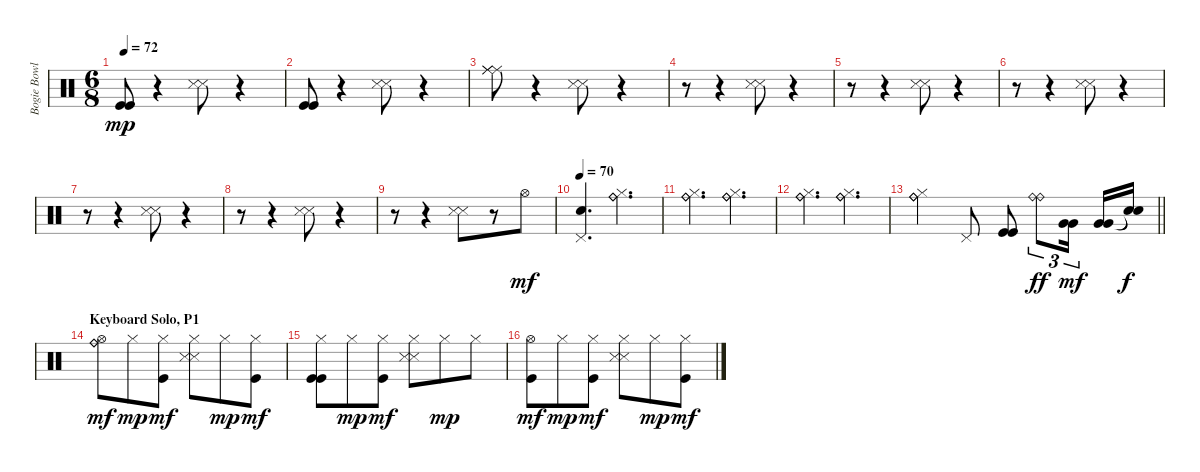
\track ("Bogie Bowles" "Bogie Bowl") {instrument percussion}
\staff {score}
\articulation defaults
\ts (6 8)
\tempo 72
\clef neutral
\ks c
("Kick (hit)" "Kick (hit)").8{dy mp} r.4 ("Snare (side stick) 3" "Snare (side stick) 3").8 r.4 |
("Kick (hit)" "Kick (hit)").8 r.4 ("Snare (side stick) 3" "Snare (side stick) 3").8 r.4 |
("Ride (middle)" "Ride (middle)" "Ride (middle)").8 r.4 ("Snare (side stick) 3" "Snare (side stick) 3").8 r.4 |
r.8 r.4 ("Snare (side stick) 3" "Snare (side stick) 3").8 r.4 |
r.8 r.4 ("Snare (side stick) 3" "Snare (side stick) 3").8 r.4 |
r.8 r.4 ("Snare (side stick) 3" "Snare (side stick) 3").8 r.4 |
r.8 r.4 ("Snare (side stick) 3" "Snare (side stick) 3").8 r.4 |
r.8 r.4 ("Snare (side stick) 3" "Snare (side stick) 3").8 r.4 |
r.8 r.4 ("Snare (side stick) 3" "Snare (side stick) 3").8 r.8 "Hi-Hat (open)".8{dy mf} |
\tempo 70
("Pedal Hi-Hat (hit)" "Snare (hit)").4{d} ("Hi-Hat (closed)" "Ride (bell)" "Ride (bell)").4{d} |
("Hi-Hat (closed)" "Ride (bell)" "Ride (bell)").4{d} ("Hi-Hat (closed)" "Ride (bell)" "Ride (bell)").4{d} |
("Hi-Hat (closed)" "Ride (bell)" "Ride (bell)").4{d} ("Hi-Hat (closed)" "Ride (bell)" "Ride (bell)").4{d} |
\barLineRight lightlight
("Hi-Hat (closed)" "Ride (bell)" "Ride (bell)").4 "Pedal Hi-Hat (hit)".8 ("Kick (hit)" "Kick (hit)").8 ("Ride (bell)" "Ride (bell)").8{tu (3 2) dy ff} ("Very Low Tom (hit)" "Very Low Tom (hit)").16{tu (3 2) dy mf beam splitsecondary} ("Very Low Tom (hit)" "Very Low Tom (hit)").16 ("Snare (hit)"{t} "Snare (hit)"{t}).16{dy f} |
\section ("" "Keyboard Solo, P1")
("Hi-Hat (open)" "Ride (bell)" "Ride (bell)").8{dy mf volume 14} "Hi-Hat (closed)".8{dy mp} ("Hi-Hat (closed)" "Kick (hit)").8{dy mf} ("Hi-Hat (closed)" "Snare (side stick) 3" "Snare (side stick) 3").8 "Hi-Hat (closed)".8{dy mp} ("Hi-Hat (closed)" "Kick (hit)").8{dy mf} |
("Hi-Hat (closed)" "Kick (hit)" "Kick (hit)").8 "Hi-Hat (closed)".8{dy mp} ("Hi-Hat (closed)" "Kick (hit)").8{dy mf} ("Hi-Hat (closed)" "Snare (side stick) 3" "Snare (side stick) 3").8 "Hi-Hat (closed)".8{dy mp} "Hi-Hat (closed)".8 |
("Hi-Hat (open)" "Kick (hit)").8{dy mf} "Hi-Hat (closed)".8{dy mp} ("Hi-Hat (closed)" "Kick (hit)").8{dy mf} ("Hi-Hat (closed)" "Snare (side stick) 3" "Snare (side stick) 3").8 "Hi-Hat (closed)".8{dy mp} ("Hi-Hat (closed)" "Kick (hit)").8{dy mf}
